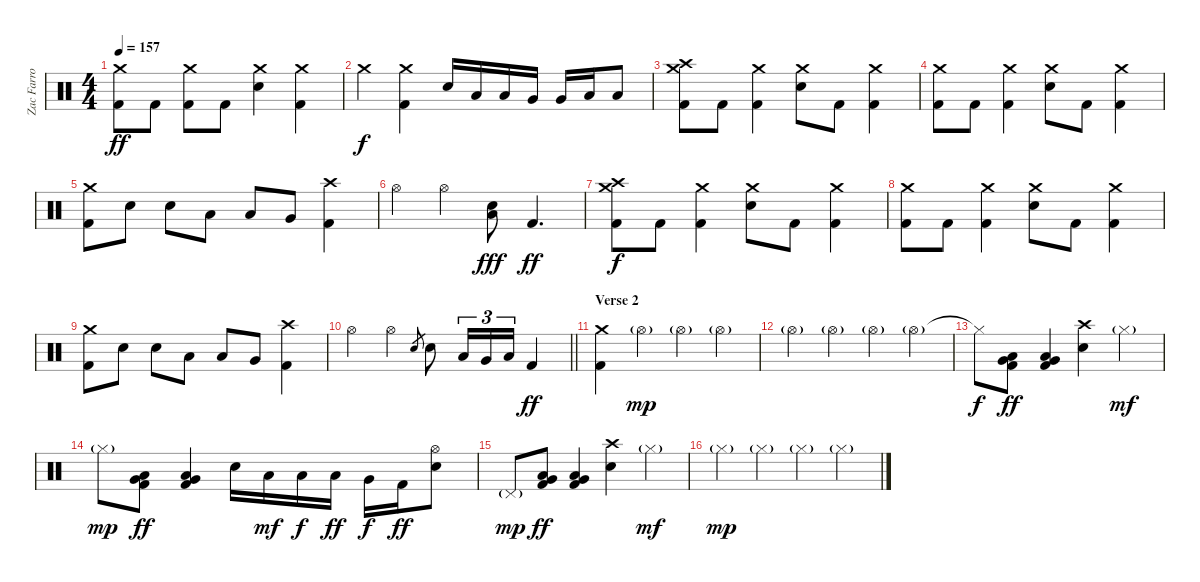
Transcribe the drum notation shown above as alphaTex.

\track ("Zac Farro | Drum" "Zac Farro ") {instrument percussion}
\staff {score}
\articulation defaults
\ts (4 4)
\tempo 157
\clef neutral
\ks c
("Crash medium (hit)" "Kick (hit) 2").8{dy ff} "Kick (hit) 2".8 ("Crash medium (hit)" "Kick (hit) 2").8 "Kick (hit) 2".8 ("Crash medium (hit)" "Electric Snare (hit)").4 ("Crash medium (hit)" "Kick (hit) 2").4 |
"Crash medium (hit)".4{dy f} ("Crash medium (hit)" "Kick (hit) 2").4 "Electric Snare (hit)".16 "Low Tom (hit)".16 "Low Tom (hit)".16 "Very Low Tom (hit)".16 "Very Low Tom (hit)".16 "Low Floor Tom (hit)".16 "Low Floor Tom (hit)".8 |
("Crash high (hit)" "Crash medium (hit)" "Kick (hit) 2").8 "Kick (hit) 2".8 ("Crash medium (hit)" "Kick (hit) 2").4 ("Crash medium (hit)" "Electric Snare (hit)").8 "Kick (hit) 2".8 ("Crash medium (hit)" "Kick (hit) 2").4 |
("Crash medium (hit)" "Kick (hit) 2").8 "Kick (hit) 2".8 ("Crash medium (hit)" "Kick (hit) 2").4 ("Crash medium (hit)" "Electric Snare (hit)").8 "Kick (hit) 2".8 ("Crash medium (hit)" "Kick (hit) 2").4 |
("Crash medium (hit)" "Kick (hit) 2").8 "Electric Snare (hit)".8 "Electric Snare (hit)".8 "Low Tom (hit)".8 "Low Tom (hit)".8 "Very Low Tom (hit)".8 ("Crash high (hit)" "Kick (hit) 2").4 |
"Hi-Hat (open)".4 "Hi-Hat (open)".4 ("Low Floor Tom (hit)" "Electric Snare (hit)").8{dy fff} "Kick (hit) 2".4{d dy ff} |
("Crash high (hit)" "Crash medium (hit)" "Kick (hit) 2").8{dy f} "Kick (hit) 2".8 ("Crash medium (hit)" "Kick (hit) 2").4 ("Crash medium (hit)" "Electric Snare (hit)").8 "Kick (hit) 2".8 ("Crash medium (hit)" "Kick (hit) 2").4 |
("Crash medium (hit)" "Kick (hit) 2").8 "Kick (hit) 2".8 ("Crash medium (hit)" "Kick (hit) 2").4 ("Crash medium (hit)" "Electric Snare (hit)").8 "Kick (hit) 2".8 ("Crash medium (hit)" "Kick (hit) 2").4 |
("Crash medium (hit)" "Kick (hit) 2").8 "Electric Snare (hit)".8 "Electric Snare (hit)".8 "Low Tom (hit)".8 "Low Tom (hit)".8 "Very Low Tom (hit)".8 ("Crash high (hit)" "Kick (hit) 2").4 |
\barLineRight lightlight "Hi-Hat (open)".4 "Hi-Hat (open)".4 "Electric Snare (hit)".8{gr} "Electric Snare (hit)".8 "Low Tom (hit)".16{tu (3 2)} "Very Low Tom (hit)".16{tu (3 2)} "Low Tom (hit)".16{tu (3 2)} "Kick (hit) 2".4{dy ff}
|
\section ("" "Verse 2")
("Crash medium (hit)" "Kick (hit) 2").4 "Hi-Hat (open)"{g}.4{dy mp} "Hi-Hat (open)"{g}.4 "Hi-Hat (open)"{g}.4 |
"Hi-Hat (open)"{g}.4 "Hi-Hat (open)"{g}.4 "Hi-Hat (open)"{g}.4 "Hi-Hat (open)"{g}.4 |
"Hi-Hat (closed)"{t}.8{dy f} ("Very Low Tom (hit)" "Low Floor Tom (hit)" "Kick (hit) 2").8{dy ff} ("Very Low Tom (hit)" "Low Floor Tom (hit)" "Kick (hit) 2").4 ("Crash high (hit)" "Electric Snare (hit)").4 "Hi-Hat (closed)"{g}.4{dy mf} |
"Hi-Hat (closed)"{g}.8{dy mp} ("Very Low Tom (hit)" "Low Floor Tom (hit)" "Kick (hit) 2").8{dy ff} ("Very Low Tom (hit)" "Low Floor Tom (hit)" "Kick (hit) 2").4 "Electric Snare (hit)".16 "Low Tom (hit)".16{dy mf} "Low Tom (hit)".16{dy f} "Low Tom (hit)".16{dy ff} "Very Low Tom (hit)".16{dy f} "Kick (hit) 2".16{dy ff} ("Hi-Hat (open)" "Electric Snare (hit)").8 |
"Pedal Hi-Hat (hit)"{g}.8{dy mp} ("Very Low Tom (hit)" "Low Floor Tom (hit)" "Kick (hit) 2").8{dy ff} ("Very Low Tom (hit)" "Low Floor Tom (hit)" "Kick (hit) 2").4 ("Crash high (hit)" "Electric Snare (hit)").4 "Hi-Hat (closed)"{g}.4{dy mf} |
"Hi-Hat (closed)"{g}.4{dy mp} "Hi-Hat (closed)"{g}.4 "Hi-Hat (closed)"{g}.4 "Hi-Hat (closed)"{g}.4
